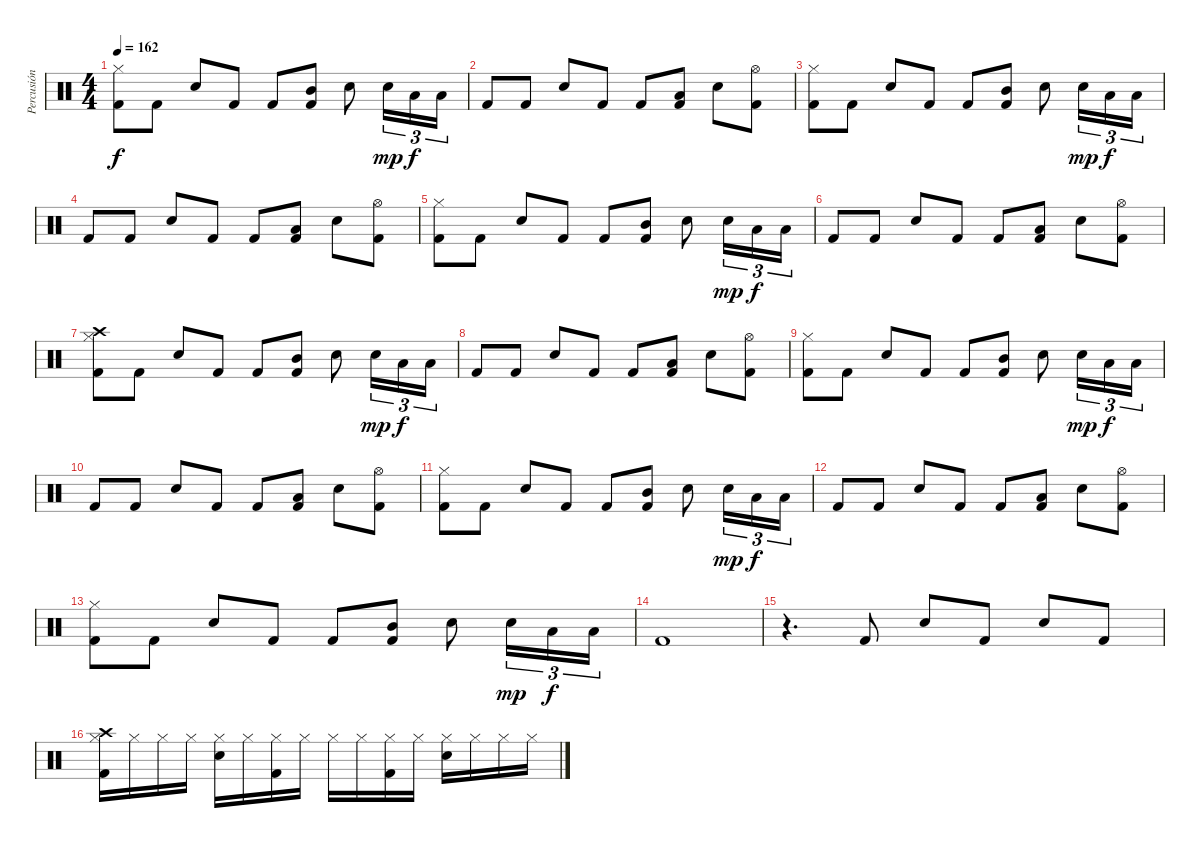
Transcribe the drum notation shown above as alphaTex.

\track ("Percusión" "Percusión") {instrument percussion}
\staff {score}
\articulation defaults
\ts (4 4)
\tempo 162
\clef neutral
\ks c
("Hi-Hat (closed)" "Kick (hit) 2").8{dy f} "Kick (hit) 2".8 "Snare (hit) 2".8 "Kick (hit) 2".8 "Kick (hit) 2".8 ("Kick (hit) 2" "Mid Tom (hit)").8 "Snare (hit) 2".8 "Snare (hit) 2".16{tu (3 2) dy mp} "Low Tom (hit)".16{tu (3 2) dy f} "Low Floor Tom (hit)".16{tu (3 2)} |
"Kick (hit) 2".8 "Kick (hit) 2".8 "Snare (hit) 2".8 "Kick (hit) 2".8 "Kick (hit) 2".8 ("Kick (hit) 2" "Low Tom (hit)").8 "Snare (hit) 2".8 ("Hi-Hat (open)" "Kick (hit) 2").8 |
("Hi-Hat (closed)" "Kick (hit) 2").8 "Kick (hit) 2".8 "Snare (hit) 2".8 "Kick (hit) 2".8 "Kick (hit) 2".8 ("Kick (hit) 2" "Mid Tom (hit)").8 "Snare (hit) 2".8 "Snare (hit) 2".16{tu (3 2) dy mp} "Low Tom (hit)".16{tu (3 2) dy f} "Low Floor Tom (hit)".16{tu (3 2)} |
"Kick (hit) 2".8 "Kick (hit) 2".8 "Snare (hit) 2".8 "Kick (hit) 2".8 "Kick (hit) 2".8 ("Kick (hit) 2" "Low Tom (hit)").8 "Snare (hit) 2".8 ("Hi-Hat (open)" "Kick (hit) 2").8 |
("Hi-Hat (closed)" "Kick (hit) 2").8 "Kick (hit) 2".8 "Snare (hit) 2".8 "Kick (hit) 2".8 "Kick (hit) 2".8 ("Kick (hit) 2" "Mid Tom (hit)").8 "Snare (hit) 2".8 "Snare (hit) 2".16{tu (3 2) dy mp} "Low Tom (hit)".16{tu (3 2) dy f} "Low Floor Tom (hit)".16{tu (3 2)} |
"Kick (hit) 2".8 "Kick (hit) 2".8 "Snare (hit) 2".8 "Kick (hit) 2".8 "Kick (hit) 2".8 ("Kick (hit) 2" "Low Tom (hit)").8 "Snare (hit) 2".8 ("Hi-Hat (open)" "Kick (hit) 2").8 |
("Crash high (hit)" "Kick (hit) 2" "Hi-Hat (closed)").8 "Kick (hit) 2".8 "Snare (hit) 2".8 "Kick (hit) 2".8 "Kick (hit) 2".8 ("Kick (hit) 2" "Mid Tom (hit)").8 "Snare (hit) 2".8 "Snare (hit) 2".16{tu (3 2) dy mp} "Low Tom (hit)".16{tu (3 2) dy f} "Low Floor Tom (hit)".16{tu (3 2)} |
"Kick (hit) 2".8 "Kick (hit) 2".8 "Snare (hit) 2".8 "Kick (hit) 2".8 "Kick (hit) 2".8 ("Kick (hit) 2" "Low Tom (hit)").8 "Snare (hit) 2".8 ("Hi-Hat (open)" "Kick (hit) 2").8 |
("Hi-Hat (closed)" "Kick (hit) 2").8 "Kick (hit) 2".8 "Snare (hit) 2".8 "Kick (hit) 2".8 "Kick (hit) 2".8 ("Kick (hit) 2" "Mid Tom (hit)").8 "Snare (hit) 2".8 "Snare (hit) 2".16{tu (3 2) dy mp} "Low Tom (hit)".16{tu (3 2) dy f} "Low Floor Tom (hit)".16{tu (3 2)} |
"Kick (hit) 2".8 "Kick (hit) 2".8 "Snare (hit) 2".8 "Kick (hit) 2".8 "Kick (hit) 2".8 ("Kick (hit) 2" "Low Tom (hit)").8 "Snare (hit) 2".8 ("Hi-Hat (open)" "Kick (hit) 2").8 |
("Hi-Hat (closed)" "Kick (hit) 2").8 "Kick (hit) 2".8 "Snare (hit) 2".8 "Kick (hit) 2".8 "Kick (hit) 2".8 ("Kick (hit) 2" "Mid Tom (hit)").8 "Snare (hit) 2".8 "Snare (hit) 2".16{tu (3 2) dy mp} "Low Tom (hit)".16{tu (3 2) dy f} "Low Floor Tom (hit)".16{tu (3 2)} |
"Kick (hit) 2".8 "Kick (hit) 2".8 "Snare (hit) 2".8 "Kick (hit) 2".8 "Kick (hit) 2".8 ("Kick (hit) 2" "Low Tom (hit)").8 "Snare (hit) 2".8 ("Hi-Hat (open)" "Kick (hit) 2").8 |
("Hi-Hat (closed)" "Kick (hit) 2").8 "Kick (hit) 2".8 "Snare (hit) 2".8 "Kick (hit) 2".8 "Kick (hit) 2".8 ("Kick (hit) 2" "Mid Tom (hit)").8 "Snare (hit) 2".8 "Snare (hit) 2".16{tu (3 2) dy mp} "Low Tom (hit)".16{tu (3 2) dy f} "Low Floor Tom (hit)".16{tu (3 2)} |
"Kick (hit) 2".1 |
r.4{d} "Kick (hit) 2".8 "Snare (hit) 2".8 "Kick (hit) 2".8 "Snare (hit) 2".8 "Kick (hit) 2".8 |
("Crash high (hit)" "Hi-Hat (closed)" "Kick (hit) 2").16 "Hi-Hat (closed)".16 "Hi-Hat (closed)".16 "Hi-Hat (closed)".16 ("Hi-Hat (closed)" "Snare (hit) 2").16 "Hi-Hat (closed)".16 ("Hi-Hat (closed)" "Kick (hit) 2").16 "Hi-Hat (closed)".16 "Hi-Hat (closed)".16 "Hi-Hat (closed)".16 ("Hi-Hat (closed)" "Kick (hit) 2").16 "Hi-Hat (closed)".16 ("Hi-Hat (closed)" "Snare (hit) 2").16 "Hi-Hat (closed)".16 "Hi-Hat (closed)".16 "Hi-Hat (closed)".16
